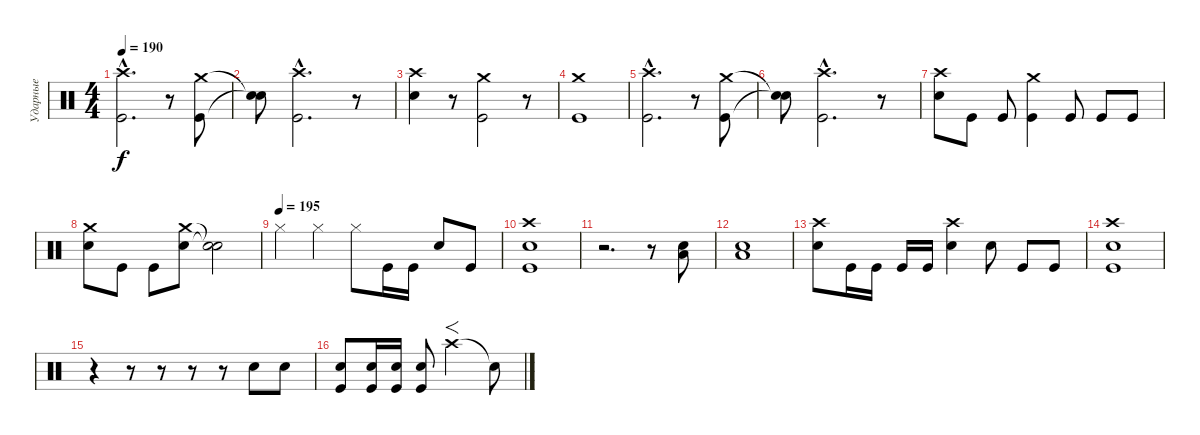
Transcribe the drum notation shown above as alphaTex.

\track ("Ударные" "Ударные") {instrument percussion}
\staff {score}
\articulation defaults
\ts (4 4)
\tempo 190
\clef neutral
\ks c
("Crash high (hit)"{hac} "Kick (hit)"{hac}).2{d dy f volume 13} r.8 ("Crash medium (hit)" "Kick (hit)").8 |
("Snare (hit)"{t} "Snare (hit)"{t}).8 ("Crash high (hit)"{hac} "Kick (hit)"{hac}).2{d} r.8 |
("Crash high (hit)" "Electric Snare (hit)").4 r.8 ("Crash medium (hit)" "Kick (hit)").2 r.8 |
("Crash medium (hit)" "Kick (hit)").1 |
("Crash high (hit)"{hac} "Kick (hit)"{hac}).2{d} r.8 ("Crash medium (hit)" "Kick (hit)").8 |
("Snare (hit)"{t} "Snare (hit)"{t}).8 ("Crash high (hit)"{hac} "Kick (hit)"{hac}).2{d} r.8 |
("Crash high (hit)" "Electric Snare (hit)").8 "Kick (hit)".8 "Kick (hit)".8 ("Crash medium (hit)" "Kick (hit)").4 "Kick (hit)".8 "Kick (hit)".8 "Kick (hit)".8 |
("Crash medium (hit)" "Electric Snare (hit)").8 "Kick (hit)".8 "Kick (hit)".8 ("Crash medium (hit)" "Electric Snare (hit)").8 ("Snare (hit)"{t} "Snare (hit)"{t}).2 |
\tempo (195)
"Hi-Hat (closed)".4 "Hi-Hat (closed)".4 "Hi-Hat (closed)".8 "Kick (hit)".16 "Kick (hit)".16 "Electric Snare (hit)".8 "Kick (hit)".8 |
("Crash high (hit)" "Electric Snare (hit)" "Kick (hit)").1 |
r.2{d} r.8 ("Electric Snare (hit)" "Low Tom (hit)").8 |
("Electric Snare (hit)" "Low Tom (hit)").1 |
("Crash high (hit)" "Electric Snare (hit)").8 "Kick (hit)".16 "Kick (hit)".16 "Kick (hit)".16 "Kick (hit)".16 ("Crash high (hit)" "Electric Snare (hit)").4 "Electric Snare (hit)".8 "Kick (hit)".8 "Kick (hit)".8 |
("Crash high (hit)" "Electric Snare (hit)" "Kick (hit)").1 |
r.4 r.8 r.8 r.8 r.8 "Electric Snare (hit)".8 "Electric Snare (hit)".8 |
("Electric Snare (hit)" "Kick (hit)").8 ("Electric Snare (hit)" "Kick (hit)").16 ("Electric Snare (hit)" "Kick (hit)").16 ("Electric Snare (hit)" "Kick (hit)").8 "Crash high (hit)".2{f} "Snare (hit)"{t}.8
